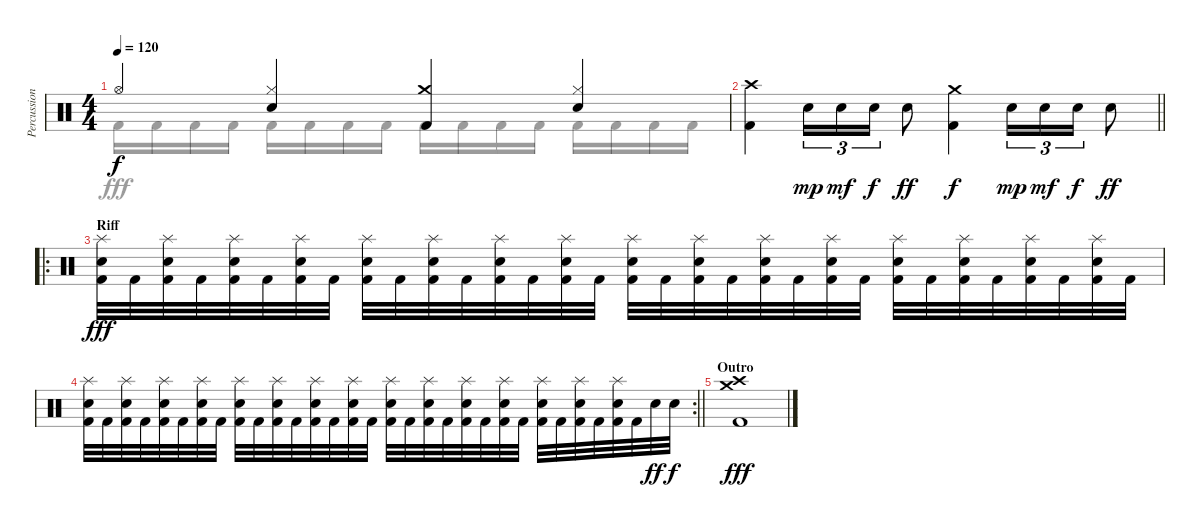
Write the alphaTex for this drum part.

\track ("Percussion" "Percussion") {instrument percussion}
\staff {score}
\articulation defaults
\voice
\ts (4 4)
\tempo 120
\clef neutral
\ks c "Hi-Hat (open)".4{dy f}
("Hi-Hat (closed)" "Electric Snare (hit)").4 ("Crash medium (hit)" "Kick (hit) 2").4 ("Hi-Hat (closed)" "Electric Snare (hit)").4 |
\barLineRight lightlight
("Crash high (hit)" "Kick (hit) 2").4 "Electric Snare (hit)".16{tu (3 2) dy mp} "Electric Snare (hit)".16{tu (3 2) dy mf} "Electric Snare (hit)".16{tu (3 2) dy f} "Electric Snare (hit)".8{dy ff} ("Crash medium (hit)" "Kick (hit) 2").4{dy f} "Electric Snare (hit)".16{tu (3 2) dy mp} "Electric Snare (hit)".16{tu (3 2) dy mf} "Electric Snare (hit)".16{tu (3 2) dy f} "Electric Snare (hit)".8{dy ff} |
\ro
\section ("" "Riff")
("Splash (hit)" "Electric Snare (hit)" "Kick (hit) 2").32{dy fff} "Kick (hit) 2".32 ("Splash (hit)" "Electric Snare (hit)" "Kick (hit) 2").32 "Kick (hit) 2".32 ("Splash (hit)" "Electric Snare (hit)" "Kick (hit) 2").32 "Kick (hit) 2".32 ("Splash (hit)" "Electric Snare (hit)" "Kick (hit) 2").32 "Kick (hit) 2".32 ("Splash (hit)" "Electric Snare (hit)" "Kick (hit) 2").32 "Kick (hit) 2".32 ("Splash (hit)" "Electric Snare (hit)" "Kick (hit) 2").32 "Kick (hit) 2".32 ("Splash (hit)" "Electric Snare (hit)" "Kick (hit) 2").32 "Kick (hit) 2".32 ("Splash (hit)" "Electric Snare (hit)" "Kick (hit) 2").32 "Kick (hit) 2".32 ("Splash (hit)" "Electric Snare (hit)" "Kick (hit) 2").32 "Kick (hit) 2".32 ("Splash (hit)" "Electric Snare (hit)" "Kick (hit) 2").32 "Kick (hit) 2".32 ("Splash (hit)" "Electric Snare (hit)" "Kick (hit) 2").32 "Kick (hit) 2".32 ("Splash (hit)" "Electric Snare (hit)" "Kick (hit) 2").32 "Kick (hit) 2".32 ("Splash (hit)" "Electric Snare (hit)" "Kick (hit) 2").32 "Kick (hit) 2".32 ("Splash (hit)" "Electric Snare (hit)" "Kick (hit) 2").32 "Kick (hit) 2".32 ("Splash (hit)" "Electric Snare (hit)" "Kick (hit) 2").32 "Kick (hit) 2".32 ("Splash (hit)" "Electric Snare (hit)" "Kick (hit) 2").32 "Kick (hit) 2".32 |
\rc 2
\barLineRight lightlight
("Splash (hit)" "Electric Snare (hit)" "Kick (hit) 2").32 "Kick (hit) 2".32 ("Splash (hit)" "Electric Snare (hit)" "Kick (hit) 2").32 "Kick (hit) 2".32 ("Splash (hit)" "Electric Snare (hit)" "Kick (hit) 2").32 "Kick (hit) 2".32 ("Splash (hit)" "Electric Snare (hit)" "Kick (hit) 2").32 "Kick (hit) 2".32 ("Splash (hit)" "Electric Snare (hit)" "Kick (hit) 2").32 "Kick (hit) 2".32 ("Splash (hit)" "Electric Snare (hit)" "Kick (hit) 2").32 "Kick (hit) 2".32 ("Splash (hit)" "Electric Snare (hit)" "Kick (hit) 2").32 "Kick (hit) 2".32 ("Splash (hit)" "Electric Snare (hit)" "Kick (hit) 2").32 "Kick (hit) 2".32 ("Splash (hit)" "Electric Snare (hit)" "Kick (hit) 2").32 "Kick (hit) 2".32 ("Splash (hit)" "Electric Snare (hit)" "Kick (hit) 2").32 "Kick (hit) 2".32 ("Splash (hit)" "Electric Snare (hit)" "Kick (hit) 2").32 "Kick (hit) 2".32 ("Splash (hit)" "Electric Snare (hit)" "Kick (hit) 2").32 "Kick (hit) 2".32 ("Splash (hit)" "Electric Snare (hit)" "Kick (hit) 2").32 "Kick (hit) 2".32 ("Splash (hit)" "Electric Snare (hit)" "Kick (hit) 2").32 "Kick (hit) 2".32 ("Splash (hit)" "Electric Snare (hit)" "Kick (hit) 2").32 "Kick (hit) 2".32 "Electric Snare (hit)".32{dy ff} "Electric Snare (hit)".32{dy f} |
\section ("" "Outro")
("Crash high (hit)" "Crash medium (hit)" "Kick (hit) 2").1{dy fff} |
\voice
\clef neutral
\ottava regular
\simile none
\ks c "Kick (hit) 2".16{dy fff} "Kick (hit) 2".16 "Kick (hit) 2".16 "Kick (hit) 2".16 "Kick (hit) 2".16 "Kick (hit) 2".16 "Kick (hit) 2".16 "Kick (hit) 2".16 "Kick (hit) 2".16 "Kick (hit) 2".16 "Kick (hit) 2".16 "Kick (hit) 2".16 "Kick (hit) 2".16 "Kick (hit) 2".16 "Kick (hit) 2".16 "Kick (hit) 2".16
|
\barLineRight lightlight
|
|
\barLineRight lightlight
|
|
